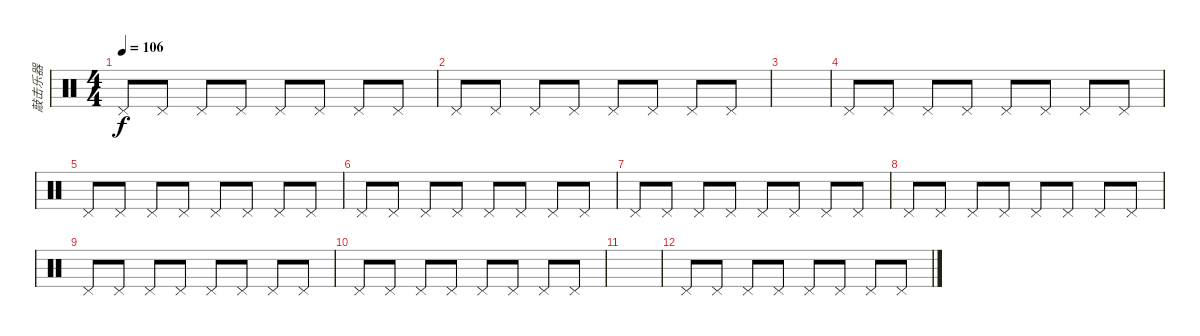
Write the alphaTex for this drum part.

\track ("敲击乐器" "敲击乐器") {instrument percussion}
\staff {score}
\articulation defaults
\ts (4 4)
\tempo 106
\clef neutral
\ks c "Pedal Hi-Hat (hit)".8{dy f} "Pedal Hi-Hat (hit)".8 "Pedal Hi-Hat (hit)".8 "Pedal Hi-Hat (hit)".8 "Pedal Hi-Hat (hit)".8 "Pedal Hi-Hat (hit)".8 "Pedal Hi-Hat (hit)".8 "Pedal Hi-Hat (hit)".8
|
"Pedal Hi-Hat (hit)".8 "Pedal Hi-Hat (hit)".8 "Pedal Hi-Hat (hit)".8 "Pedal Hi-Hat (hit)".8 "Pedal Hi-Hat (hit)".8 "Pedal Hi-Hat (hit)".8 "Pedal Hi-Hat (hit)".8 "Pedal Hi-Hat (hit)".8 |
|
"Pedal Hi-Hat (hit)".8 "Pedal Hi-Hat (hit)".8 "Pedal Hi-Hat (hit)".8 "Pedal Hi-Hat (hit)".8 "Pedal Hi-Hat (hit)".8 "Pedal Hi-Hat (hit)".8 "Pedal Hi-Hat (hit)".8 "Pedal Hi-Hat (hit)".8 |
"Pedal Hi-Hat (hit)".8 "Pedal Hi-Hat (hit)".8 "Pedal Hi-Hat (hit)".8 "Pedal Hi-Hat (hit)".8 "Pedal Hi-Hat (hit)".8 "Pedal Hi-Hat (hit)".8 "Pedal Hi-Hat (hit)".8 "Pedal Hi-Hat (hit)".8 |
"Pedal Hi-Hat (hit)".8 "Pedal Hi-Hat (hit)".8 "Pedal Hi-Hat (hit)".8 "Pedal Hi-Hat (hit)".8 "Pedal Hi-Hat (hit)".8 "Pedal Hi-Hat (hit)".8 "Pedal Hi-Hat (hit)".8 "Pedal Hi-Hat (hit)".8 |
"Pedal Hi-Hat (hit)".8 "Pedal Hi-Hat (hit)".8 "Pedal Hi-Hat (hit)".8 "Pedal Hi-Hat (hit)".8 "Pedal Hi-Hat (hit)".8 "Pedal Hi-Hat (hit)".8 "Pedal Hi-Hat (hit)".8 "Pedal Hi-Hat (hit)".8 |
"Pedal Hi-Hat (hit)".8 "Pedal Hi-Hat (hit)".8 "Pedal Hi-Hat (hit)".8 "Pedal Hi-Hat (hit)".8 "Pedal Hi-Hat (hit)".8 "Pedal Hi-Hat (hit)".8 "Pedal Hi-Hat (hit)".8 "Pedal Hi-Hat (hit)".8 |
"Pedal Hi-Hat (hit)".8 "Pedal Hi-Hat (hit)".8 "Pedal Hi-Hat (hit)".8 "Pedal Hi-Hat (hit)".8 "Pedal Hi-Hat (hit)".8 "Pedal Hi-Hat (hit)".8 "Pedal Hi-Hat (hit)".8 "Pedal Hi-Hat (hit)".8 |
"Pedal Hi-Hat (hit)".8 "Pedal Hi-Hat (hit)".8 "Pedal Hi-Hat (hit)".8 "Pedal Hi-Hat (hit)".8 "Pedal Hi-Hat (hit)".8 "Pedal Hi-Hat (hit)".8 "Pedal Hi-Hat (hit)".8 "Pedal Hi-Hat (hit)".8 |
|
"Pedal Hi-Hat (hit)".8 "Pedal Hi-Hat (hit)".8 "Pedal Hi-Hat (hit)".8 "Pedal Hi-Hat (hit)".8 "Pedal Hi-Hat (hit)".8 "Pedal Hi-Hat (hit)".8 "Pedal Hi-Hat (hit)".8 "Pedal Hi-Hat (hit)".8
